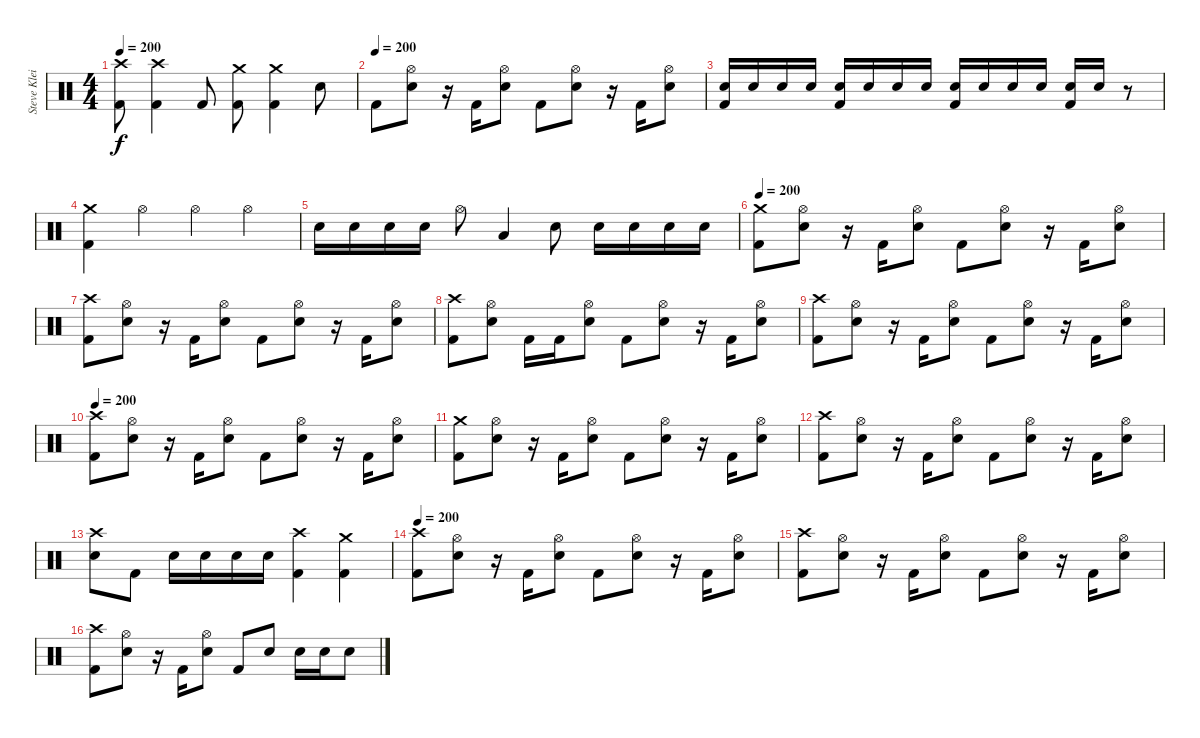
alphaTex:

\track ("Steve Kleisath" "Steve Klei") {instrument percussion}
\staff
\articulation defaults
\ts (4 4)
\tempo 200
\clef neutral
\ks c
("Crash high (hit)" "Kick (hit) 2").8{dy f} ("Crash high (hit)" "Kick (hit) 2").4 "Kick (hit) 2".8 ("Crash medium (hit)" "Kick (hit) 2").8 ("Crash medium (hit)" "Kick (hit) 2").4 "Electric Snare (hit)".8 |
\tempo (200)
"Kick (hit) 2".8 ("Hi-Hat (open)" "Electric Snare (hit)").8 r.16 "Kick (hit) 2".16 ("Hi-Hat (open)" "Electric Snare (hit)").8 "Kick (hit) 2".8 ("Hi-Hat (open)" "Electric Snare (hit)").8 r.16 "Kick (hit) 2".16 ("Hi-Hat (open)" "Electric Snare (hit)").8 |
("Electric Snare (hit)" "Kick (hit) 2").16 "Electric Snare (hit)".16 "Electric Snare (hit)".16 "Electric Snare (hit)".16 ("Electric Snare (hit)" "Kick (hit) 2").16 "Electric Snare (hit)".16 "Electric Snare (hit)".16 "Electric Snare (hit)".16 ("Electric Snare (hit)" "Kick (hit) 2").16 "Electric Snare (hit)".16 "Electric Snare (hit)".16 "Electric Snare (hit)".16 ("Electric Snare (hit)" "Kick (hit) 2").16 "Electric Snare (hit)".16 r.8 |
("Crash medium (hit)" "Kick (hit) 2").4 "Hi-Hat (open)".4 "Hi-Hat (open)".4 "Hi-Hat (open)".4 |
"Electric Snare (hit)".16 "Electric Snare (hit)".16 "Electric Snare (hit)".16 "Electric Snare (hit)".16 "Hi-Hat (open)".8 "Low Tom (hit)".4 "Electric Snare (hit)".8 "Electric Snare (hit)".16 "Electric Snare (hit)".16 "Electric Snare (hit)".16 "Electric Snare (hit)".16 |
\tempo 200
("Crash medium (hit)" "Kick (hit) 2").8 ("Hi-Hat (open)" "Electric Snare (hit)").8 r.16 "Kick (hit) 2".16 ("Hi-Hat (open)" "Electric Snare (hit)").8 "Kick (hit) 2".8 ("Hi-Hat (open)" "Electric Snare (hit)").8 r.16 "Kick (hit) 2".16 ("Hi-Hat (open)" "Electric Snare (hit)").8 |
("Crash high (hit)" "Kick (hit) 2").8 ("Hi-Hat (open)" "Electric Snare (hit)").8 r.16 "Kick (hit) 2".16 ("Hi-Hat (open)" "Electric Snare (hit)").8 "Kick (hit) 2".8 ("Hi-Hat (open)" "Electric Snare (hit)").8 r.16 "Kick (hit) 2".16 ("Hi-Hat (open)" "Electric Snare (hit)").8 |
("Crash high (hit)" "Kick (hit) 2").8 ("Hi-Hat (open)" "Electric Snare (hit)").8 "Kick (hit) 2".16 "Kick (hit) 2".16 ("Hi-Hat (open)" "Electric Snare (hit)").8 "Kick (hit) 2".8 ("Hi-Hat (open)" "Electric Snare (hit)").8 r.16 "Kick (hit) 2".16 ("Hi-Hat (open)" "Electric Snare (hit)").8 |
("Crash high (hit)" "Kick (hit) 2").8 ("Hi-Hat (open)" "Electric Snare (hit)").8 r.16 "Kick (hit) 2".16 ("Hi-Hat (open)" "Electric Snare (hit)").8 "Kick (hit) 2".8 ("Hi-Hat (open)" "Electric Snare (hit)").8 r.16 "Kick (hit) 2".16 ("Hi-Hat (open)" "Electric Snare (hit)").8 |
\tempo 200
("Crash high (hit)" "Kick (hit) 2").8 ("Hi-Hat (open)" "Electric Snare (hit)").8 r.16 "Kick (hit) 2".16 ("Hi-Hat (open)" "Electric Snare (hit)").8 "Kick (hit) 2".8 ("Hi-Hat (open)" "Electric Snare (hit)").8 r.16 "Kick (hit) 2".16 ("Hi-Hat (open)" "Electric Snare (hit)").8 |
("Crash medium (hit)" "Kick (hit) 2").8 ("Hi-Hat (open)" "Electric Snare (hit)").8 r.16 "Kick (hit) 2".16 ("Hi-Hat (open)" "Electric Snare (hit)").8 "Kick (hit) 2".8 ("Hi-Hat (open)" "Electric Snare (hit)").8 r.16 "Kick (hit) 2".16 ("Hi-Hat (open)" "Electric Snare (hit)").8 |
("Crash high (hit)" "Kick (hit) 2").8 ("Hi-Hat (open)" "Electric Snare (hit)").8 r.16 "Kick (hit) 2".16 ("Hi-Hat (open)" "Electric Snare (hit)").8 "Kick (hit) 2".8 ("Hi-Hat (open)" "Electric Snare (hit)").8 r.16 "Kick (hit) 2".16 ("Hi-Hat (open)" "Electric Snare (hit)").8 |
("Crash high (hit)" "Electric Snare (hit)").8 "Kick (hit) 2".8 "Electric Snare (hit)".16 "Electric Snare (hit)".16 "Electric Snare (hit)".16 "Electric Snare (hit)".16 ("Crash high (hit)" "Kick (hit) 2").4 ("Crash medium (hit)" "Kick (hit) 2").4 |
\tempo 200
("Crash high (hit)" "Kick (hit) 2").8 ("Hi-Hat (open)" "Electric Snare (hit)").8 r.16 "Kick (hit) 2".16 ("Hi-Hat (open)" "Electric Snare (hit)").8 "Kick (hit) 2".8 ("Hi-Hat (open)" "Electric Snare (hit)").8 r.16 "Kick (hit) 2".16 ("Hi-Hat (open)" "Electric Snare (hit)").8 |
("Crash high (hit)" "Kick (hit) 2").8 ("Hi-Hat (open)" "Electric Snare (hit)").8 r.16 "Kick (hit) 2".16 ("Hi-Hat (open)" "Electric Snare (hit)").8 "Kick (hit) 2".8 ("Hi-Hat (open)" "Electric Snare (hit)").8 r.16 "Kick (hit) 2".16 ("Hi-Hat (open)" "Electric Snare (hit)").8 |
("Crash high (hit)" "Kick (hit) 2").8 ("Hi-Hat (open)" "Electric Snare (hit)").8 r.16 "Kick (hit) 2".16 ("Hi-Hat (open)" "Electric Snare (hit)").8 "Kick (hit) 2".8 "Electric Snare (hit)".8 "Electric Snare (hit)".16 "Electric Snare (hit)".16 "Electric Snare (hit)".8
